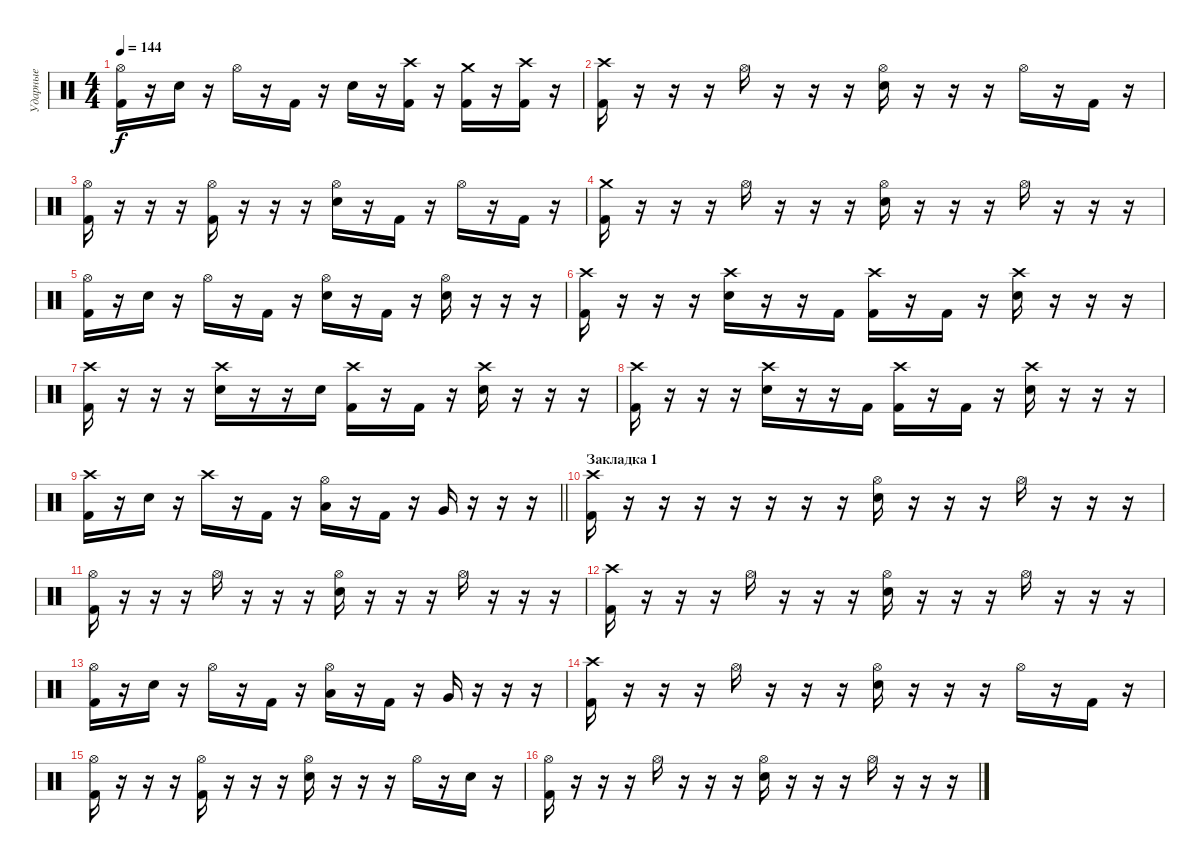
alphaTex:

\track ("Ударные" "Ударные") {instrument percussion}
\staff {score}
\articulation defaults
\ts (4 4)
\tempo 144
\clef neutral
\ks c
("Hi-Hat (open)" "Kick (hit) 2").16{dy f} r.16 "Electric Snare (hit)".16 r.16 "Hi-Hat (open)".16 r.16 "Kick (hit) 2".16 r.16 "Electric Snare (hit)".16 r.16 ("Crash high (hit)" "Kick (hit) 2").16 r.16 ("Crash medium (hit)" "Kick (hit) 2").16 r.16 ("Crash high (hit)" "Kick (hit) 2").16 r.16 |
("Crash high (hit)" "Kick (hit) 2").16 r.16 r.16 r.16 "Hi-Hat (open)".16 r.16 r.16 r.16 ("Hi-Hat (open)" "Electric Snare (hit)").16 r.16 r.16 r.16 "Hi-Hat (open)".16 r.16 "Kick (hit) 2".16 r.16 |
("Hi-Hat (open)" "Kick (hit) 2").16 r.16 r.16 r.16 ("Hi-Hat (open)" "Kick (hit) 2").16 r.16 r.16 r.16 ("Hi-Hat (open)" "Electric Snare (hit)").16 r.16 "Kick (hit) 2".16 r.16 "Hi-Hat (open)".16 r.16 "Kick (hit) 2".16 r.16 |
("Crash medium (hit)" "Kick (hit) 2").16 r.16 r.16 r.16 "Hi-Hat (open)".16 r.16 r.16 r.16 ("Hi-Hat (open)" "Electric Snare (hit)").16 r.16 r.16 r.16 "Hi-Hat (open)".16 r.16 r.16 r.16 |
("Hi-Hat (open)" "Kick (hit) 2").16 r.16 "Electric Snare (hit)".16 r.16 "Hi-Hat (open)".16 r.16 "Kick (hit) 2".16 r.16 ("Hi-Hat (open)" "Electric Snare (hit)").16 r.16 "Kick (hit) 2".16 r.16 ("Hi-Hat (open)" "Electric Snare (hit)").16 r.16 r.16 r.16 |
("Crash high (hit)" "Kick (hit) 2").16 r.16 r.16 r.16 ("Crash high (hit)" "Electric Snare (hit)").16 r.16 r.16 "Kick (hit) 2".16 ("Crash high (hit)" "Kick (hit) 2").16 r.16 "Kick (hit) 2".16 r.16 ("Crash high (hit)" "Electric Snare (hit)").16 r.16 r.16 r.16 |
("Crash high (hit)" "Kick (hit) 2").16 r.16 r.16 r.16 ("Crash high (hit)" "Electric Snare (hit)").16 r.16 r.16 "Electric Snare (hit)".16 ("Crash high (hit)" "Kick (hit) 2").16 r.16 "Kick (hit) 2".16 r.16 ("Crash high (hit)" "Electric Snare (hit)").16 r.16 r.16 r.16 |
("Crash high (hit)" "Kick (hit) 2").16 r.16 r.16 r.16 ("Crash high (hit)" "Electric Snare (hit)").16 r.16 r.16 "Kick (hit) 2".16 ("Crash high (hit)" "Kick (hit) 2").16 r.16 "Kick (hit) 2".16 r.16 ("Crash high (hit)" "Electric Snare (hit)").16 r.16 r.16 r.16 |
\barLineRight lightlight
("Crash high (hit)" "Kick (hit) 2").16 r.16 "Electric Snare (hit)".16 r.16 "Crash high (hit)".16 r.16 "Kick (hit) 2".16 r.16 ("Hi-Hat (open)" "Low Tom (hit)").16 r.16 "Kick (hit) 2".16 r.16 "Very Low Tom (hit)".16 r.16 r.16 r.16 |
\section ("" "Закладка 1")
("Crash high (hit)" "Kick (hit) 2").16 r.16 r.16 r.16 r.16 r.16 r.16 r.16 ("Hi-Hat (open)" "Electric Snare (hit)").16 r.16 r.16 r.16 "Hi-Hat (open)".16 r.16 r.16 r.16 |
("Hi-Hat (open)" "Kick (hit) 2").16 r.16 r.16 r.16 "Hi-Hat (open)".16 r.16 r.16 r.16 ("Hi-Hat (open)" "Electric Snare (hit)").16 r.16 r.16 r.16 "Hi-Hat (open)".16 r.16 r.16 r.16 |
("Crash high (hit)" "Kick (hit) 2").16 r.16 r.16 r.16 "Hi-Hat (open)".16 r.16 r.16 r.16 ("Hi-Hat (open)" "Electric Snare (hit)").16 r.16 r.16 r.16 "Hi-Hat (open)".16 r.16 r.16 r.16 |
("Hi-Hat (open)" "Kick (hit) 2").16 r.16 "Electric Snare (hit)".16 r.16 "Hi-Hat (open)".16 r.16 "Kick (hit) 2".16 r.16 ("Hi-Hat (open)" "Low Tom (hit)").16 r.16 "Kick (hit) 2".16 r.16 "Very Low Tom (hit)".16 r.16 r.16 r.16 |
("Crash high (hit)" "Kick (hit) 2").16 r.16 r.16 r.16 "Hi-Hat (open)".16 r.16 r.16 r.16 ("Hi-Hat (open)" "Electric Snare (hit)").16 r.16 r.16 r.16 "Hi-Hat (open)".16 r.16 "Kick (hit) 2".16 r.16 |
("Hi-Hat (open)" "Kick (hit) 2").16 r.16 r.16 r.16 ("Hi-Hat (open)" "Kick (hit) 2").16 r.16 r.16 r.16 ("Hi-Hat (open)" "Electric Snare (hit)").16 r.16 r.16 r.16 "Hi-Hat (open)".16 r.16 "Electric Snare (hit)".16 r.16 |
("Hi-Hat (open)" "Kick (hit) 2").16 r.16 r.16 r.16 "Hi-Hat (open)".16 r.16 r.16 r.16 ("Hi-Hat (open)" "Electric Snare (hit)").16 r.16 r.16 r.16 "Hi-Hat (open)".16 r.16 r.16 r.16
